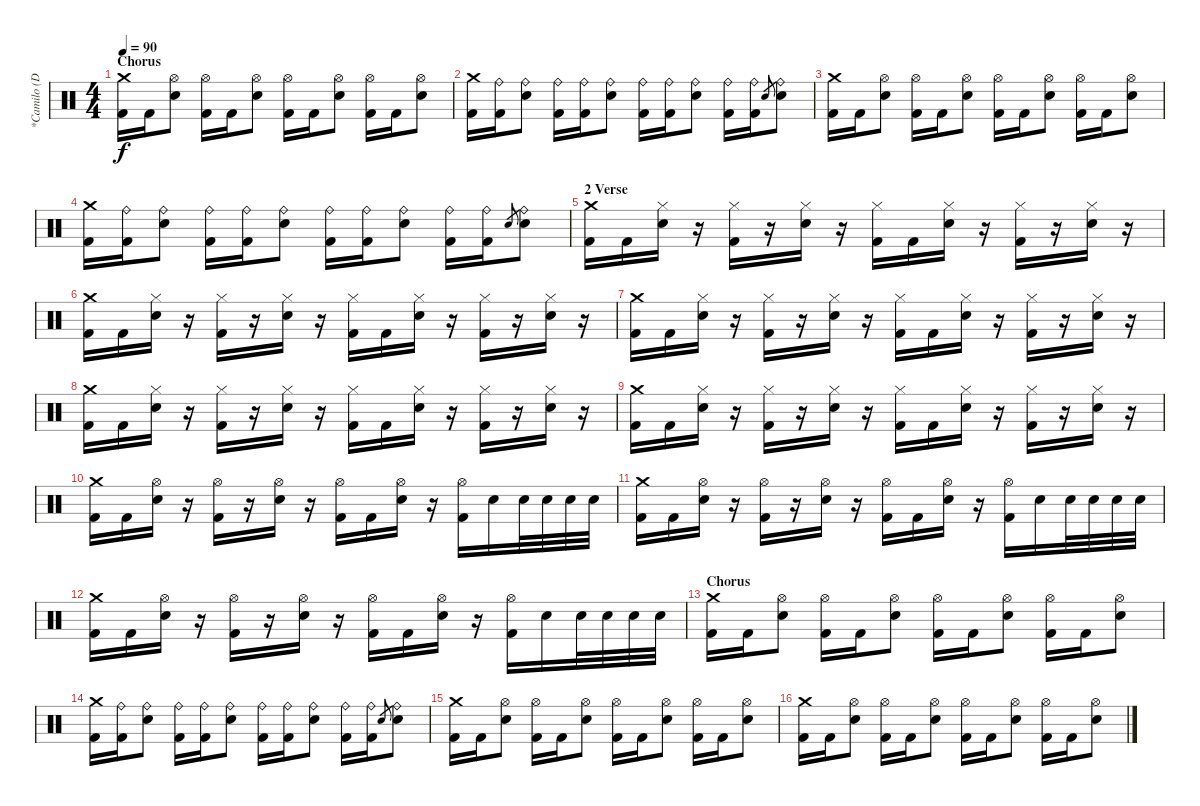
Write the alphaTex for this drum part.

\track ("*Camilo (Drums)" "*Camilo (D") {instrument percussion}
\staff {score}
\articulation defaults
\ts (4 4)
\section ("" "Chorus")
\tempo 90
\clef neutral
\ks c
("Crash medium (hit)" "Kick (hit) 2").16{dy f} "Kick (hit) 2".16 ("Hi-Hat (open)" "Electric Snare (hit)").8 ("Hi-Hat (open)" "Kick (hit) 2").16 "Kick (hit) 2".16 ("Hi-Hat (open)" "Electric Snare (hit)").8 ("Hi-Hat (open)" "Kick (hit) 2").16 "Kick (hit) 2".16 ("Hi-Hat (open)" "Electric Snare (hit)").8 ("Hi-Hat (open)" "Kick (hit) 2").16 "Kick (hit) 2".16 ("Hi-Hat (open)" "Electric Snare (hit)").8 |
("Crash medium (hit)" "Kick (hit) 2").16 ("Ride (bell)" "Kick (hit) 2").16 ("Ride (bell)" "Electric Snare (hit)").8 ("Ride (bell)" "Kick (hit) 2").16 ("Ride (bell)" "Kick (hit) 2").16 ("Ride (bell)" "Electric Snare (hit)").8 ("Ride (bell)" "Kick (hit) 2").16 ("Ride (bell)" "Kick (hit) 2").16 ("Ride (bell)" "Electric Snare (hit)").8 ("Ride (bell)" "Kick (hit) 2").16 ("Ride (bell)" "Kick (hit) 2").16 "Electric Snare (hit)".8{gr} ("Ride (bell)" "Electric Snare (hit)").8 |
("Crash medium (hit)" "Kick (hit) 2").16 "Kick (hit) 2".16 ("Hi-Hat (open)" "Electric Snare (hit)").8 ("Hi-Hat (open)" "Kick (hit) 2").16 "Kick (hit) 2".16 ("Hi-Hat (open)" "Electric Snare (hit)").8 ("Hi-Hat (open)" "Kick (hit) 2").16 "Kick (hit) 2".16 ("Hi-Hat (open)" "Electric Snare (hit)").8 ("Hi-Hat (open)" "Kick (hit) 2").16 "Kick (hit) 2".16 ("Hi-Hat (open)" "Electric Snare (hit)").8 |
("Crash medium (hit)" "Kick (hit) 2").16 ("Ride (bell)" "Kick (hit) 2").16 ("Ride (bell)" "Electric Snare (hit)").8 ("Ride (bell)" "Kick (hit) 2").16 ("Ride (bell)" "Kick (hit) 2").16 ("Ride (bell)" "Electric Snare (hit)").8 ("Ride (bell)" "Kick (hit) 2").16 ("Ride (bell)" "Kick (hit) 2").16 ("Ride (bell)" "Electric Snare (hit)").8 ("Ride (bell)" "Kick (hit) 2").16 ("Ride (bell)" "Kick (hit) 2").16 "Electric Snare (hit)".8{gr} ("Ride (bell)" "Electric Snare (hit)").8 |
\section ("" "2 Verse")
("Crash medium (hit)" "Kick (hit) 2").16 "Kick (hit) 2".16 ("Hi-Hat (closed)" "Electric Snare (hit)").16 r.16 ("Hi-Hat (closed)" "Kick (hit) 2").16 r.16 ("Hi-Hat (closed)" "Electric Snare (hit)").16 r.16 ("Hi-Hat (closed)" "Kick (hit) 2").16 "Kick (hit) 2".16 ("Hi-Hat (closed)" "Electric Snare (hit)").16 r.16 ("Hi-Hat (closed)" "Kick (hit) 2").16 r.16 ("Hi-Hat (closed)" "Electric Snare (hit)").16 r.16 |
("Crash medium (hit)" "Kick (hit) 2").16 "Kick (hit) 2".16 ("Hi-Hat (closed)" "Electric Snare (hit)").16 r.16 ("Hi-Hat (closed)" "Kick (hit) 2").16 r.16 ("Hi-Hat (closed)" "Electric Snare (hit)").16 r.16 ("Hi-Hat (closed)" "Kick (hit) 2").16 "Kick (hit) 2".16 ("Hi-Hat (closed)" "Electric Snare (hit)").16 r.16 ("Hi-Hat (closed)" "Kick (hit) 2").16 r.16 ("Hi-Hat (closed)" "Electric Snare (hit)").16 r.16 |
("Crash medium (hit)" "Kick (hit) 2").16 "Kick (hit) 2".16 ("Hi-Hat (closed)" "Electric Snare (hit)").16 r.16 ("Hi-Hat (closed)" "Kick (hit) 2").16 r.16 ("Hi-Hat (closed)" "Electric Snare (hit)").16 r.16 ("Hi-Hat (closed)" "Kick (hit) 2").16 "Kick (hit) 2".16 ("Hi-Hat (closed)" "Electric Snare (hit)").16 r.16 ("Hi-Hat (closed)" "Kick (hit) 2").16 r.16 ("Hi-Hat (closed)" "Electric Snare (hit)").16 r.16 |
("Crash medium (hit)" "Kick (hit) 2").16 "Kick (hit) 2".16 ("Hi-Hat (closed)" "Electric Snare (hit)").16 r.16 ("Hi-Hat (closed)" "Kick (hit) 2").16 r.16 ("Hi-Hat (closed)" "Electric Snare (hit)").16 r.16 ("Hi-Hat (closed)" "Kick (hit) 2").16 "Kick (hit) 2".16 ("Hi-Hat (closed)" "Electric Snare (hit)").16 r.16 ("Hi-Hat (closed)" "Kick (hit) 2").16 r.16 ("Hi-Hat (closed)" "Electric Snare (hit)").16 r.16 |
("Crash medium (hit)" "Kick (hit) 2").16 "Kick (hit) 2".16 ("Hi-Hat (closed)" "Electric Snare (hit)").16 r.16 ("Hi-Hat (closed)" "Kick (hit) 2").16 r.16 ("Hi-Hat (closed)" "Electric Snare (hit)").16 r.16 ("Hi-Hat (closed)" "Kick (hit) 2").16 "Kick (hit) 2".16 ("Hi-Hat (closed)" "Electric Snare (hit)").16 r.16 ("Hi-Hat (closed)" "Kick (hit) 2").16 r.16 ("Hi-Hat (closed)" "Electric Snare (hit)").16 r.16 |
("Crash medium (hit)" "Kick (hit) 2").16 "Kick (hit) 2".16 ("Hi-Hat (open)" "Electric Snare (hit)").16 r.16 ("Hi-Hat (open)" "Kick (hit) 2").16 r.16 ("Hi-Hat (open)" "Electric Snare (hit)").16 r.16 ("Hi-Hat (open)" "Kick (hit) 2").16 "Kick (hit) 2".16 ("Hi-Hat (open)" "Electric Snare (hit)").16 r.16 ("Hi-Hat (open)" "Kick (hit) 2").16 "Electric Snare (hit)".16 "Electric Snare (hit)".32 "Electric Snare (hit)".32 "Electric Snare (hit)".32 "Electric Snare (hit)".32 |
("Crash medium (hit)" "Kick (hit) 2").16 "Kick (hit) 2".16 ("Hi-Hat (open)" "Electric Snare (hit)").16 r.16 ("Hi-Hat (open)" "Kick (hit) 2").16 r.16 ("Hi-Hat (open)" "Electric Snare (hit)").16 r.16 ("Hi-Hat (open)" "Kick (hit) 2").16 "Kick (hit) 2".16 ("Hi-Hat (open)" "Electric Snare (hit)").16 r.16 ("Hi-Hat (open)" "Kick (hit) 2").16 "Electric Snare (hit)".16 "Electric Snare (hit)".32 "Electric Snare (hit)".32 "Electric Snare (hit)".32 "Electric Snare (hit)".32 |
("Crash medium (hit)" "Kick (hit) 2").16 "Kick (hit) 2".16 ("Hi-Hat (open)" "Electric Snare (hit)").16 r.16 ("Hi-Hat (open)" "Kick (hit) 2").16 r.16 ("Hi-Hat (open)" "Electric Snare (hit)").16 r.16 ("Hi-Hat (open)" "Kick (hit) 2").16 "Kick (hit) 2".16 ("Hi-Hat (open)" "Electric Snare (hit)").16 r.16 ("Hi-Hat (open)" "Kick (hit) 2").16 "Electric Snare (hit)".16 "Electric Snare (hit)".32 "Electric Snare (hit)".32 "Electric Snare (hit)".32 "Electric Snare (hit)".32 |
\section ("" "Chorus")
("Crash medium (hit)" "Kick (hit) 2").16 "Kick (hit) 2".16 ("Hi-Hat (open)" "Electric Snare (hit)").8 ("Hi-Hat (open)" "Kick (hit) 2").16 "Kick (hit) 2".16 ("Hi-Hat (open)" "Electric Snare (hit)").8 ("Hi-Hat (open)" "Kick (hit) 2").16 "Kick (hit) 2".16 ("Hi-Hat (open)" "Electric Snare (hit)").8 ("Hi-Hat (open)" "Kick (hit) 2").16 "Kick (hit) 2".16 ("Hi-Hat (open)" "Electric Snare (hit)").8 |
("Crash medium (hit)" "Kick (hit) 2").16 ("Ride (bell)" "Kick (hit) 2").16 ("Ride (bell)" "Electric Snare (hit)").8 ("Ride (bell)" "Kick (hit) 2").16 ("Ride (bell)" "Kick (hit) 2").16 ("Ride (bell)" "Electric Snare (hit)").8 ("Ride (bell)" "Kick (hit) 2").16 ("Ride (bell)" "Kick (hit) 2").16 ("Ride (bell)" "Electric Snare (hit)").8 ("Ride (bell)" "Kick (hit) 2").16 ("Ride (bell)" "Kick (hit) 2").16 "Electric Snare (hit)".8{gr} ("Ride (bell)" "Electric Snare (hit)").8 |
("Crash medium (hit)" "Kick (hit) 2").16 "Kick (hit) 2".16 ("Hi-Hat (open)" "Electric Snare (hit)").8 ("Hi-Hat (open)" "Kick (hit) 2").16 "Kick (hit) 2".16 ("Hi-Hat (open)" "Electric Snare (hit)").8 ("Hi-Hat (open)" "Kick (hit) 2").16 "Kick (hit) 2".16 ("Hi-Hat (open)" "Electric Snare (hit)").8 ("Hi-Hat (open)" "Kick (hit) 2").16 "Kick (hit) 2".16 ("Hi-Hat (open)" "Electric Snare (hit)").8 |
("Crash medium (hit)" "Kick (hit) 2").16 "Kick (hit) 2".16 ("Hi-Hat (open)" "Electric Snare (hit)").8 ("Hi-Hat (open)" "Kick (hit) 2").16 "Kick (hit) 2".16 ("Hi-Hat (open)" "Electric Snare (hit)").8 ("Hi-Hat (open)" "Kick (hit) 2").16 "Kick (hit) 2".16 ("Hi-Hat (open)" "Electric Snare (hit)").8 ("Hi-Hat (open)" "Kick (hit) 2").16 "Kick (hit) 2".16 ("Hi-Hat (open)" "Electric Snare (hit)").8
